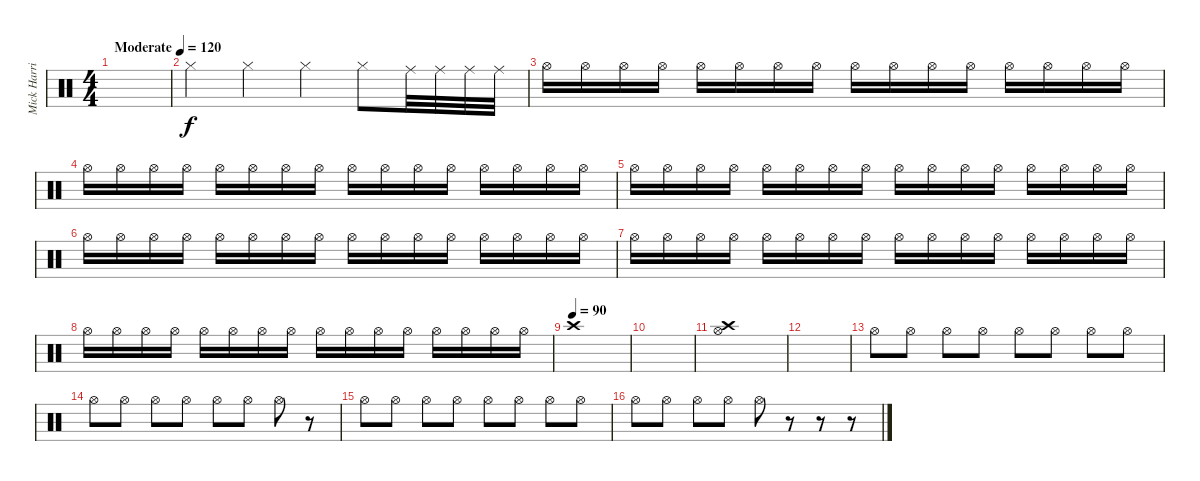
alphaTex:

\track ("Mick Harris" "Mick Harri") {instrument percussion}
\staff {score}
\articulation defaults
\ts (4 4)
\tempo (120 "Moderate")
\clef neutral
\ks c
|
"Hi-Hat (closed)".4 "Hi-Hat (closed)".4 "Hi-Hat (closed)".4 "Hi-Hat (closed)".8 "Ride (middle)".32 "Ride (middle)".32 "Ride (middle)".32 "Ride (middle)".32 |
"Hi-Hat (open)".16 "Hi-Hat (open)".16 "Hi-Hat (open)".16 "Hi-Hat (open)".16 "Hi-Hat (open)".16 "Hi-Hat (open)".16 "Hi-Hat (open)".16 "Hi-Hat (open)".16 "Hi-Hat (open)".16 "Hi-Hat (open)".16 "Hi-Hat (open)".16 "Hi-Hat (open)".16 "Hi-Hat (open)".16 "Hi-Hat (open)".16 "Hi-Hat (open)".16 "Hi-Hat (open)".16 |
"Hi-Hat (open)".16 "Hi-Hat (open)".16 "Hi-Hat (open)".16 "Hi-Hat (open)".16 "Hi-Hat (open)".16 "Hi-Hat (open)".16 "Hi-Hat (open)".16 "Hi-Hat (open)".16 "Hi-Hat (open)".16 "Hi-Hat (open)".16 "Hi-Hat (open)".16 "Hi-Hat (open)".16 "Hi-Hat (open)".16 "Hi-Hat (open)".16 "Hi-Hat (open)".16 "Hi-Hat (open)".16 |
"Hi-Hat (open)".16 "Hi-Hat (open)".16 "Hi-Hat (open)".16 "Hi-Hat (open)".16 "Hi-Hat (open)".16 "Hi-Hat (open)".16 "Hi-Hat (open)".16 "Hi-Hat (open)".16 "Hi-Hat (open)".16 "Hi-Hat (open)".16 "Hi-Hat (open)".16 "Hi-Hat (open)".16 "Hi-Hat (open)".16 "Hi-Hat (open)".16 "Hi-Hat (open)".16 "Hi-Hat (open)".16 |
"Hi-Hat (open)".16 "Hi-Hat (open)".16 "Hi-Hat (open)".16 "Hi-Hat (open)".16 "Hi-Hat (open)".16 "Hi-Hat (open)".16 "Hi-Hat (open)".16 "Hi-Hat (open)".16 "Hi-Hat (open)".16 "Hi-Hat (open)".16 "Hi-Hat (open)".16 "Hi-Hat (open)".16 "Hi-Hat (open)".16 "Hi-Hat (open)".16 "Hi-Hat (open)".16 "Hi-Hat (open)".16 |
"Hi-Hat (open)".16 "Hi-Hat (open)".16 "Hi-Hat (open)".16 "Hi-Hat (open)".16 "Hi-Hat (open)".16 "Hi-Hat (open)".16 "Hi-Hat (open)".16 "Hi-Hat (open)".16 "Hi-Hat (open)".16 "Hi-Hat (open)".16 "Hi-Hat (open)".16 "Hi-Hat (open)".16 "Hi-Hat (open)".16 "Hi-Hat (open)".16 "Hi-Hat (open)".16 "Hi-Hat (open)".16 |
"Hi-Hat (open)".16 "Hi-Hat (open)".16 "Hi-Hat (open)".16 "Hi-Hat (open)".16 "Hi-Hat (open)".16 "Hi-Hat (open)".16 "Hi-Hat (open)".16 "Hi-Hat (open)".16 "Hi-Hat (open)".16 "Hi-Hat (open)".16 "Hi-Hat (open)".16 "Hi-Hat (open)".16 "Hi-Hat (open)".16 "Hi-Hat (open)".16 "Hi-Hat (open)".16 "Hi-Hat (open)".16 |
\tempo (90)
"Crash high (hit)".1 |
|
("Hi-Hat (open)" "Crash high (hit)").1 |
|
"Hi-Hat (open)".8 "Hi-Hat (open)".8 "Hi-Hat (open)".8 "Hi-Hat (open)".8 "Hi-Hat (open)".8 "Hi-Hat (open)".8 "Hi-Hat (open)".8 "Hi-Hat (open)".8 |
"Hi-Hat (open)".8 "Hi-Hat (open)".8 "Hi-Hat (open)".8 "Hi-Hat (open)".8 "Hi-Hat (open)".8 "Hi-Hat (open)".8 "Hi-Hat (open)".8 r.8 |
"Hi-Hat (open)".8 "Hi-Hat (open)".8 "Hi-Hat (open)".8 "Hi-Hat (open)".8 "Hi-Hat (open)".8 "Hi-Hat (open)".8 "Hi-Hat (open)".8 "Hi-Hat (open)".8 |
"Hi-Hat (open)".8 "Hi-Hat (open)".8 "Hi-Hat (open)".8 "Hi-Hat (open)".8 "Hi-Hat (open)".8 r.8 r.8 r.8
